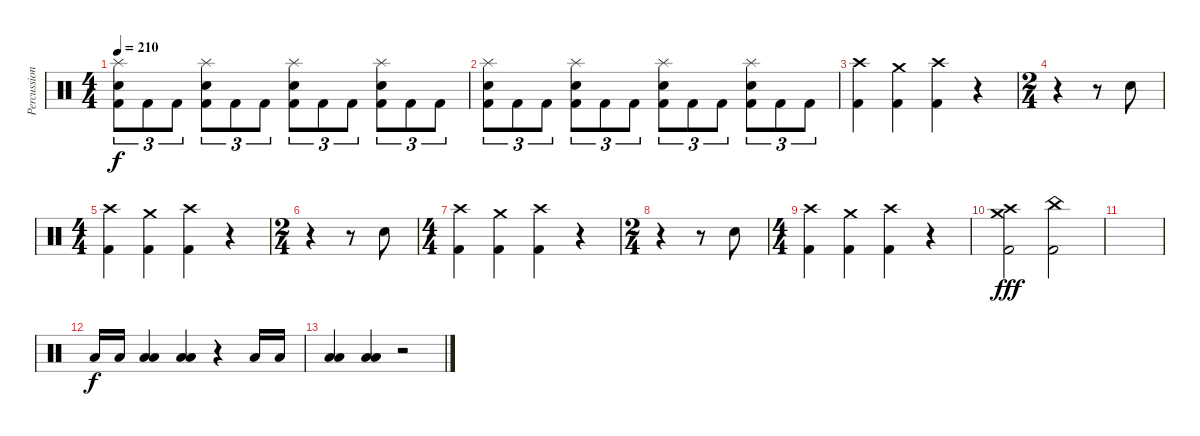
\track ("Percussion" "Percussion") {instrument percussion}
\staff {score}
\articulation defaults
\ts (4 4)
\tempo 210
\clef neutral
\ks c
("Splash (hit)" "Snare (hit) 2" "Kick (hit) 2").8{tu (3 2) dy f} "Kick (hit) 2".8{tu (3 2)} "Kick (hit) 2".8{tu (3 2)} ("Splash (hit)" "Snare (hit) 2" "Kick (hit) 2").8{tu (3 2)} "Kick (hit) 2".8{tu (3 2)} "Kick (hit) 2".8{tu (3 2)} ("Splash (hit)" "Snare (hit) 2" "Kick (hit) 2").8{tu (3 2)} "Kick (hit) 2".8{tu (3 2)} "Kick (hit) 2".8{tu (3 2)} ("Splash (hit)" "Snare (hit) 2" "Kick (hit) 2").8{tu (3 2)} "Kick (hit) 2".8{tu (3 2)} "Kick (hit) 2".8{tu (3 2)} |
("Splash (hit)" "Snare (hit) 2" "Kick (hit) 2").8{tu (3 2)} "Kick (hit) 2".8{tu (3 2)} "Kick (hit) 2".8{tu (3 2)} ("Splash (hit)" "Snare (hit) 2" "Kick (hit) 2").8{tu (3 2)} "Kick (hit) 2".8{tu (3 2)} "Kick (hit) 2".8{tu (3 2)} ("Splash (hit)" "Snare (hit) 2" "Kick (hit) 2").8{tu (3 2)} "Kick (hit) 2".8{tu (3 2)} "Kick (hit) 2".8{tu (3 2)} ("Splash (hit)" "Snare (hit) 2" "Kick (hit) 2").8{tu (3 2)} "Kick (hit) 2".8{tu (3 2)} "Kick (hit) 2".8{tu (3 2)} |
("Crash high (hit)" "Kick (hit) 2").4 ("Crash medium (hit)" "Kick (hit) 2").4 ("Crash high (hit)" "Kick (hit) 2").4 r.4 |
\ts (2 4)
r.4 r.8 "Snare (hit) 2".8 |
\ts (4 4)
("Crash high (hit)" "Kick (hit) 2").4 ("Crash medium (hit)" "Kick (hit) 2").4 ("Crash high (hit)" "Kick (hit) 2").4 r.4 |
\ts (2 4)
r.4 r.8 "Snare (hit) 2".8 |
\ts (4 4)
("Crash high (hit)" "Kick (hit) 2").4 ("Crash medium (hit)" "Kick (hit) 2").4 ("Crash high (hit)" "Kick (hit) 2").4 r.4 |
\ts (2 4)
r.4 r.8 "Snare (hit) 2".8 |
\ts (4 4)
("Crash high (hit)" "Kick (hit) 2").4 ("Crash medium (hit)" "Kick (hit) 2").4 ("Crash high (hit)" "Kick (hit) 2").4 r.4 |
("Crash medium (hit)" "Crash high (hit)" "Kick (hit) 2").2{dy fff} ("China (hit)" "Kick (hit) 2").2 |
|
"Low Floor Tom (hit)".16{dy f} "Low Floor Tom (hit)".16 ("Low Floor Tom (hit)" "Low Floor Tom (hit)").4 ("Low Floor Tom (hit)" "Low Floor Tom (hit)").4 r.4 "Low Floor Tom (hit)".16 "Low Floor Tom (hit)".16 |
("Low Floor Tom (hit)" "Low Floor Tom (hit)").4 ("Low Floor Tom (hit)" "Low Floor Tom (hit)").4 r.2
